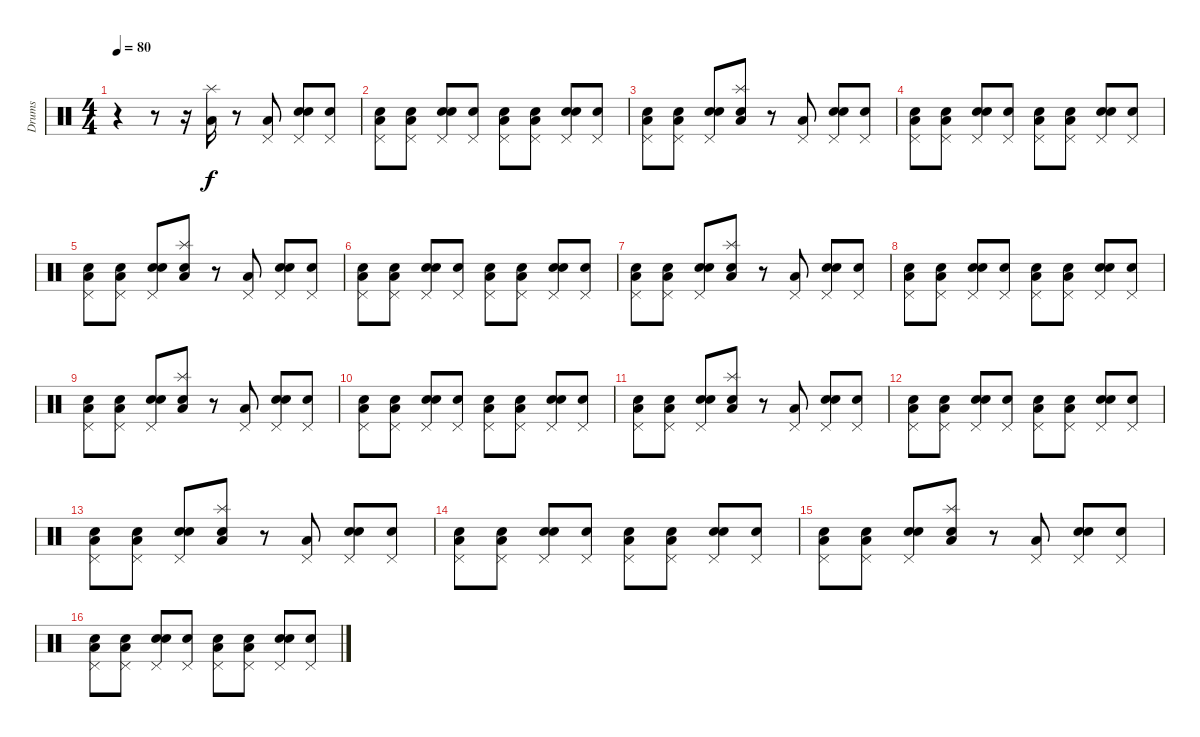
\track ("Drums" "Drums") {instrument percussion}
\staff {score}
\articulation defaults
\ts (4 4)
\tempo 80
\clef neutral
\ks c
r.4{dy f} r.8 r.16 ("Low Floor Tom (hit)" "Splash (hit)").16 r.8 ("Low Floor Tom (hit)" "Pedal Hi-Hat (hit)").8 ("Snare (hit)" "Electric Snare (hit)" "Pedal Hi-Hat (hit)").8 ("Snare (hit)" "Pedal Hi-Hat (hit)").8 |
("Snare (hit)" "Low Floor Tom (hit)" "Pedal Hi-Hat (hit)").8 ("Snare (hit)" "Low Floor Tom (hit)" "Pedal Hi-Hat (hit)").8 ("Snare (hit)" "Electric Snare (hit)" "Pedal Hi-Hat (hit)").8 ("Snare (hit)" "Pedal Hi-Hat (hit)").8 ("Snare (hit)" "Low Floor Tom (hit)" "Pedal Hi-Hat (hit)").8 ("Snare (hit)" "Low Floor Tom (hit)" "Pedal Hi-Hat (hit)").8 ("Snare (hit)" "Electric Snare (hit)" "Pedal Hi-Hat (hit)").8 ("Snare (hit)" "Pedal Hi-Hat (hit)").8 |
("Snare (hit)" "Low Floor Tom (hit)" "Pedal Hi-Hat (hit)").8 ("Snare (hit)" "Low Floor Tom (hit)" "Pedal Hi-Hat (hit)").8 ("Snare (hit)" "Electric Snare (hit)" "Pedal Hi-Hat (hit)").8 ("Snare (hit)" "Low Floor Tom (hit)" "Splash (hit)").8 r.8 ("Low Floor Tom (hit)" "Pedal Hi-Hat (hit)").8 ("Snare (hit)" "Electric Snare (hit)" "Pedal Hi-Hat (hit)").8 ("Snare (hit)" "Pedal Hi-Hat (hit)").8 |
("Snare (hit)" "Low Floor Tom (hit)" "Pedal Hi-Hat (hit)").8 ("Snare (hit)" "Low Floor Tom (hit)" "Pedal Hi-Hat (hit)").8 ("Snare (hit)" "Electric Snare (hit)" "Pedal Hi-Hat (hit)").8 ("Snare (hit)" "Pedal Hi-Hat (hit)").8 ("Snare (hit)" "Low Floor Tom (hit)" "Pedal Hi-Hat (hit)").8 ("Snare (hit)" "Low Floor Tom (hit)" "Pedal Hi-Hat (hit)").8 ("Snare (hit)" "Electric Snare (hit)" "Pedal Hi-Hat (hit)").8 ("Snare (hit)" "Pedal Hi-Hat (hit)").8 |
("Snare (hit)" "Low Floor Tom (hit)" "Pedal Hi-Hat (hit)").8 ("Snare (hit)" "Low Floor Tom (hit)" "Pedal Hi-Hat (hit)").8 ("Snare (hit)" "Electric Snare (hit)" "Pedal Hi-Hat (hit)").8 ("Snare (hit)" "Low Floor Tom (hit)" "Splash (hit)").8 r.8 ("Low Floor Tom (hit)" "Pedal Hi-Hat (hit)").8 ("Snare (hit)" "Electric Snare (hit)" "Pedal Hi-Hat (hit)").8 ("Snare (hit)" "Pedal Hi-Hat (hit)").8 |
("Snare (hit)" "Low Floor Tom (hit)" "Pedal Hi-Hat (hit)").8 ("Snare (hit)" "Low Floor Tom (hit)" "Pedal Hi-Hat (hit)").8 ("Snare (hit)" "Electric Snare (hit)" "Pedal Hi-Hat (hit)").8 ("Snare (hit)" "Pedal Hi-Hat (hit)").8 ("Snare (hit)" "Low Floor Tom (hit)" "Pedal Hi-Hat (hit)").8 ("Snare (hit)" "Low Floor Tom (hit)" "Pedal Hi-Hat (hit)").8 ("Snare (hit)" "Electric Snare (hit)" "Pedal Hi-Hat (hit)").8 ("Snare (hit)" "Pedal Hi-Hat (hit)").8 |
("Snare (hit)" "Low Floor Tom (hit)" "Pedal Hi-Hat (hit)").8 ("Snare (hit)" "Low Floor Tom (hit)" "Pedal Hi-Hat (hit)").8 ("Snare (hit)" "Electric Snare (hit)" "Pedal Hi-Hat (hit)").8 ("Snare (hit)" "Low Floor Tom (hit)" "Splash (hit)").8 r.8 ("Low Floor Tom (hit)" "Pedal Hi-Hat (hit)").8 ("Snare (hit)" "Electric Snare (hit)" "Pedal Hi-Hat (hit)").8 ("Snare (hit)" "Pedal Hi-Hat (hit)").8 |
("Snare (hit)" "Low Floor Tom (hit)" "Pedal Hi-Hat (hit)").8 ("Snare (hit)" "Low Floor Tom (hit)" "Pedal Hi-Hat (hit)").8 ("Snare (hit)" "Electric Snare (hit)" "Pedal Hi-Hat (hit)").8 ("Snare (hit)" "Pedal Hi-Hat (hit)").8 ("Snare (hit)" "Low Floor Tom (hit)" "Pedal Hi-Hat (hit)").8 ("Snare (hit)" "Low Floor Tom (hit)" "Pedal Hi-Hat (hit)").8 ("Snare (hit)" "Electric Snare (hit)" "Pedal Hi-Hat (hit)").8 ("Snare (hit)" "Pedal Hi-Hat (hit)").8 |
("Snare (hit)" "Low Floor Tom (hit)" "Pedal Hi-Hat (hit)").8 ("Snare (hit)" "Low Floor Tom (hit)" "Pedal Hi-Hat (hit)").8 ("Snare (hit)" "Electric Snare (hit)" "Pedal Hi-Hat (hit)").8 ("Snare (hit)" "Low Floor Tom (hit)" "Splash (hit)").8 r.8 ("Low Floor Tom (hit)" "Pedal Hi-Hat (hit)").8 ("Snare (hit)" "Electric Snare (hit)" "Pedal Hi-Hat (hit)").8 ("Snare (hit)" "Pedal Hi-Hat (hit)").8 |
("Snare (hit)" "Low Floor Tom (hit)" "Pedal Hi-Hat (hit)").8 ("Snare (hit)" "Low Floor Tom (hit)" "Pedal Hi-Hat (hit)").8 ("Snare (hit)" "Electric Snare (hit)" "Pedal Hi-Hat (hit)").8 ("Snare (hit)" "Pedal Hi-Hat (hit)").8 ("Snare (hit)" "Low Floor Tom (hit)" "Pedal Hi-Hat (hit)").8 ("Snare (hit)" "Low Floor Tom (hit)" "Pedal Hi-Hat (hit)").8 ("Snare (hit)" "Electric Snare (hit)" "Pedal Hi-Hat (hit)").8 ("Snare (hit)" "Pedal Hi-Hat (hit)").8 |
("Snare (hit)" "Low Floor Tom (hit)" "Pedal Hi-Hat (hit)").8 ("Snare (hit)" "Low Floor Tom (hit)" "Pedal Hi-Hat (hit)").8 ("Snare (hit)" "Electric Snare (hit)" "Pedal Hi-Hat (hit)").8 ("Snare (hit)" "Low Floor Tom (hit)" "Splash (hit)").8 r.8 ("Low Floor Tom (hit)" "Pedal Hi-Hat (hit)").8 ("Snare (hit)" "Electric Snare (hit)" "Pedal Hi-Hat (hit)").8 ("Snare (hit)" "Pedal Hi-Hat (hit)").8 |
("Snare (hit)" "Low Floor Tom (hit)" "Pedal Hi-Hat (hit)").8 ("Snare (hit)" "Low Floor Tom (hit)" "Pedal Hi-Hat (hit)").8 ("Snare (hit)" "Electric Snare (hit)" "Pedal Hi-Hat (hit)").8 ("Snare (hit)" "Pedal Hi-Hat (hit)").8 ("Snare (hit)" "Low Floor Tom (hit)" "Pedal Hi-Hat (hit)").8 ("Snare (hit)" "Low Floor Tom (hit)" "Pedal Hi-Hat (hit)").8 ("Snare (hit)" "Electric Snare (hit)" "Pedal Hi-Hat (hit)").8 ("Snare (hit)" "Pedal Hi-Hat (hit)").8 |
("Snare (hit)" "Low Floor Tom (hit)" "Pedal Hi-Hat (hit)").8 ("Snare (hit)" "Low Floor Tom (hit)" "Pedal Hi-Hat (hit)").8 ("Snare (hit)" "Electric Snare (hit)" "Pedal Hi-Hat (hit)").8 ("Snare (hit)" "Low Floor Tom (hit)" "Splash (hit)").8 r.8 ("Low Floor Tom (hit)" "Pedal Hi-Hat (hit)").8 ("Snare (hit)" "Electric Snare (hit)" "Pedal Hi-Hat (hit)").8 ("Snare (hit)" "Pedal Hi-Hat (hit)").8 |
("Snare (hit)" "Low Floor Tom (hit)" "Pedal Hi-Hat (hit)").8 ("Snare (hit)" "Low Floor Tom (hit)" "Pedal Hi-Hat (hit)").8 ("Snare (hit)" "Electric Snare (hit)" "Pedal Hi-Hat (hit)").8 ("Snare (hit)" "Pedal Hi-Hat (hit)").8 ("Snare (hit)" "Low Floor Tom (hit)" "Pedal Hi-Hat (hit)").8 ("Snare (hit)" "Low Floor Tom (hit)" "Pedal Hi-Hat (hit)").8 ("Snare (hit)" "Electric Snare (hit)" "Pedal Hi-Hat (hit)").8 ("Snare (hit)" "Pedal Hi-Hat (hit)").8 |
("Snare (hit)" "Low Floor Tom (hit)" "Pedal Hi-Hat (hit)").8 ("Snare (hit)" "Low Floor Tom (hit)" "Pedal Hi-Hat (hit)").8 ("Snare (hit)" "Electric Snare (hit)" "Pedal Hi-Hat (hit)").8 ("Snare (hit)" "Low Floor Tom (hit)" "Splash (hit)").8 r.8 ("Low Floor Tom (hit)" "Pedal Hi-Hat (hit)").8 ("Snare (hit)" "Electric Snare (hit)" "Pedal Hi-Hat (hit)").8 ("Snare (hit)" "Pedal Hi-Hat (hit)").8 |
("Snare (hit)" "Low Floor Tom (hit)" "Pedal Hi-Hat (hit)").8 ("Snare (hit)" "Low Floor Tom (hit)" "Pedal Hi-Hat (hit)").8 ("Snare (hit)" "Electric Snare (hit)" "Pedal Hi-Hat (hit)").8 ("Snare (hit)" "Pedal Hi-Hat (hit)").8 ("Snare (hit)" "Low Floor Tom (hit)" "Pedal Hi-Hat (hit)").8 ("Snare (hit)" "Low Floor Tom (hit)" "Pedal Hi-Hat (hit)").8 ("Snare (hit)" "Electric Snare (hit)" "Pedal Hi-Hat (hit)").8 ("Snare (hit)" "Pedal Hi-Hat (hit)").8
